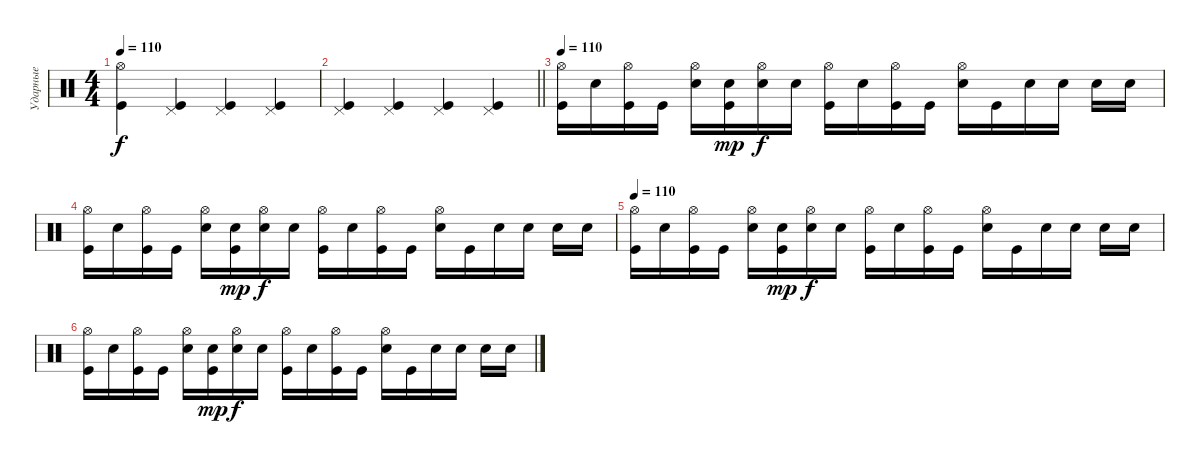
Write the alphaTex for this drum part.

\track ("Ударные" "Ударные") {instrument percussion}
\staff {score}
\articulation defaults
\ts (4 4)
\tempo 110
\clef neutral
\ks c
("Hi-Hat (open)" "Kick (hit)").4{dy f} ("Pedal Hi-Hat (hit)" "Kick (hit)").4 ("Pedal Hi-Hat (hit)" "Kick (hit)").4 ("Pedal Hi-Hat (hit)" "Kick (hit)").4 |
\barLineRight lightlight
("Pedal Hi-Hat (hit)" "Kick (hit)").4 ("Pedal Hi-Hat (hit)" "Kick (hit)").4 ("Pedal Hi-Hat (hit)" "Kick (hit)").4 ("Pedal Hi-Hat (hit)" "Kick (hit)").4 |
\tempo 110
("Hi-Hat (open)" "Kick (hit)").16 "Snare (hit) 2".16 ("Hi-Hat (open)" "Kick (hit)").16 "Kick (hit)".16 ("Hi-Hat (open)" "Snare (hit) 2").16 ("Snare (hit)" "Kick (hit)").16{dy mp} ("Hi-Hat (open)" "Snare (hit) 2").16{dy f} "Snare (hit) 2".16 ("Hi-Hat (open)" "Kick (hit)").16 "Snare (hit) 2".16 ("Hi-Hat (open)" "Kick (hit)").16 "Kick (hit)".16 ("Hi-Hat (open)" "Snare (hit) 2").16 "Kick (hit)".16 "Snare (hit) 2".16 "Snare (hit) 2".16 "Snare (hit) 2".16 "Snare (hit) 2".16 |
("Hi-Hat (open)" "Kick (hit)").16 "Snare (hit) 2".16 ("Hi-Hat (open)" "Kick (hit)").16 "Kick (hit)".16 ("Hi-Hat (open)" "Snare (hit) 2").16 ("Snare (hit)" "Kick (hit)").16{dy mp} ("Hi-Hat (open)" "Snare (hit) 2").16{dy f} "Snare (hit) 2".16 ("Hi-Hat (open)" "Kick (hit)").16 "Snare (hit) 2".16 ("Hi-Hat (open)" "Kick (hit)").16 "Kick (hit)".16 ("Hi-Hat (open)" "Snare (hit) 2").16 "Kick (hit)".16 "Snare (hit) 2".16 "Snare (hit) 2".16 "Snare (hit) 2".16 "Snare (hit) 2".16 |
\tempo 110
("Hi-Hat (open)" "Kick (hit)").16 "Snare (hit) 2".16 ("Hi-Hat (open)" "Kick (hit)").16 "Kick (hit)".16 ("Hi-Hat (open)" "Snare (hit) 2").16 ("Snare (hit)" "Kick (hit)").16{dy mp} ("Hi-Hat (open)" "Snare (hit) 2").16{dy f} "Snare (hit) 2".16 ("Hi-Hat (open)" "Kick (hit)").16 "Snare (hit) 2".16 ("Hi-Hat (open)" "Kick (hit)").16 "Kick (hit)".16 ("Hi-Hat (open)" "Snare (hit) 2").16 "Kick (hit)".16 "Snare (hit) 2".16 "Snare (hit) 2".16 "Snare (hit) 2".16 "Snare (hit) 2".16 |
("Hi-Hat (open)" "Kick (hit)").16 "Snare (hit) 2".16 ("Hi-Hat (open)" "Kick (hit)").16 "Kick (hit)".16 ("Hi-Hat (open)" "Snare (hit) 2").16 ("Snare (hit)" "Kick (hit)").16{dy mp} ("Hi-Hat (open)" "Snare (hit) 2").16{dy f} "Snare (hit) 2".16 ("Hi-Hat (open)" "Kick (hit)").16 "Snare (hit) 2".16 ("Hi-Hat (open)" "Kick (hit)").16 "Kick (hit)".16 ("Hi-Hat (open)" "Snare (hit) 2").16 "Kick (hit)".16 "Snare (hit) 2".16 "Snare (hit) 2".16 "Snare (hit) 2".16 "Snare (hit) 2".16
